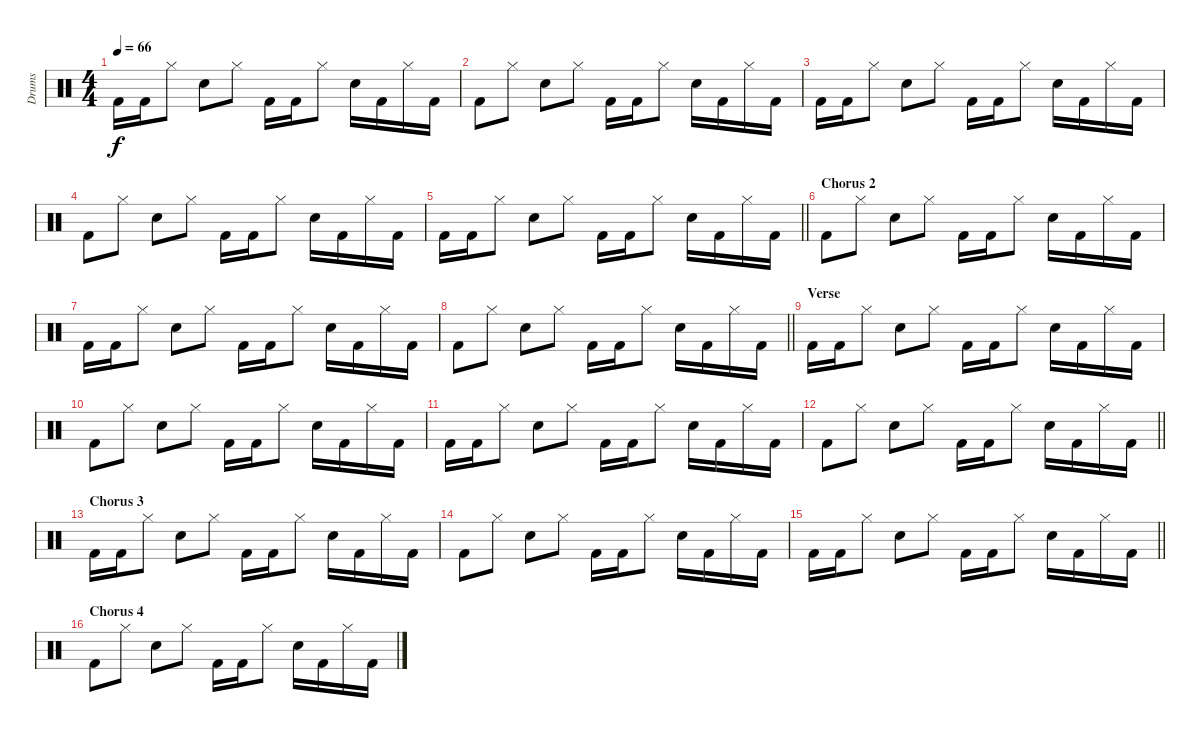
\track ("Drums" "Drums") {instrument percussion}
\staff {score}
\articulation defaults
\ts (4 4)
\tempo 66
\clef neutral
\ks c "Kick (hit) 2".16{dy f} "Kick (hit) 2".16 "Hi-Hat (closed)".8 "Snare (hit) 2".8 "Hi-Hat (closed)".8 "Kick (hit) 2".16 "Kick (hit) 2".16 "Hi-Hat (closed)".8 "Snare (hit) 2".16 "Kick (hit) 2".16 "Hi-Hat (closed)".16 "Kick (hit) 2".16
|
"Kick (hit) 2".8 "Hi-Hat (closed)".8 "Snare (hit) 2".8 "Hi-Hat (closed)".8 "Kick (hit) 2".16 "Kick (hit) 2".16 "Hi-Hat (closed)".8 "Snare (hit) 2".16 "Kick (hit) 2".16 "Hi-Hat (closed)".16 "Kick (hit) 2".16 |
"Kick (hit) 2".16 "Kick (hit) 2".16 "Hi-Hat (closed)".8 "Snare (hit) 2".8 "Hi-Hat (closed)".8 "Kick (hit) 2".16 "Kick (hit) 2".16 "Hi-Hat (closed)".8 "Snare (hit) 2".16 "Kick (hit) 2".16 "Hi-Hat (closed)".16 "Kick (hit) 2".16 |
"Kick (hit) 2".8 "Hi-Hat (closed)".8 "Snare (hit) 2".8 "Hi-Hat (closed)".8 "Kick (hit) 2".16 "Kick (hit) 2".16 "Hi-Hat (closed)".8 "Snare (hit) 2".16 "Kick (hit) 2".16 "Hi-Hat (closed)".16 "Kick (hit) 2".16 |
\barLineRight lightlight "Kick (hit) 2".16 "Kick (hit) 2".16 "Hi-Hat (closed)".8 "Snare (hit) 2".8 "Hi-Hat (closed)".8 "Kick (hit) 2".16 "Kick (hit) 2".16 "Hi-Hat (closed)".8 "Snare (hit) 2".16 "Kick (hit) 2".16 "Hi-Hat (closed)".16 "Kick (hit) 2".16
|
\section ("" "Chorus 2")
"Kick (hit) 2".8 "Hi-Hat (closed)".8 "Snare (hit) 2".8 "Hi-Hat (closed)".8 "Kick (hit) 2".16 "Kick (hit) 2".16 "Hi-Hat (closed)".8 "Snare (hit) 2".16 "Kick (hit) 2".16 "Hi-Hat (closed)".16 "Kick (hit) 2".16 |
"Kick (hit) 2".16 "Kick (hit) 2".16 "Hi-Hat (closed)".8 "Snare (hit) 2".8 "Hi-Hat (closed)".8 "Kick (hit) 2".16 "Kick (hit) 2".16 "Hi-Hat (closed)".8 "Snare (hit) 2".16 "Kick (hit) 2".16 "Hi-Hat (closed)".16 "Kick (hit) 2".16 |
\barLineRight lightlight "Kick (hit) 2".8 "Hi-Hat (closed)".8 "Snare (hit) 2".8 "Hi-Hat (closed)".8 "Kick (hit) 2".16 "Kick (hit) 2".16 "Hi-Hat (closed)".8 "Snare (hit) 2".16 "Kick (hit) 2".16 "Hi-Hat (closed)".16 "Kick (hit) 2".16
|
\section ("" "Verse")
"Kick (hit) 2".16 "Kick (hit) 2".16 "Hi-Hat (closed)".8 "Snare (hit) 2".8 "Hi-Hat (closed)".8 "Kick (hit) 2".16 "Kick (hit) 2".16 "Hi-Hat (closed)".8 "Snare (hit) 2".16 "Kick (hit) 2".16 "Hi-Hat (closed)".16 "Kick (hit) 2".16 |
"Kick (hit) 2".8 "Hi-Hat (closed)".8 "Snare (hit) 2".8 "Hi-Hat (closed)".8 "Kick (hit) 2".16 "Kick (hit) 2".16 "Hi-Hat (closed)".8 "Snare (hit) 2".16 "Kick (hit) 2".16 "Hi-Hat (closed)".16 "Kick (hit) 2".16 |
"Kick (hit) 2".16 "Kick (hit) 2".16 "Hi-Hat (closed)".8 "Snare (hit) 2".8 "Hi-Hat (closed)".8 "Kick (hit) 2".16 "Kick (hit) 2".16 "Hi-Hat (closed)".8 "Snare (hit) 2".16 "Kick (hit) 2".16 "Hi-Hat (closed)".16 "Kick (hit) 2".16 |
\barLineRight lightlight "Kick (hit) 2".8 "Hi-Hat (closed)".8 "Snare (hit) 2".8 "Hi-Hat (closed)".8 "Kick (hit) 2".16 "Kick (hit) 2".16 "Hi-Hat (closed)".8 "Snare (hit) 2".16 "Kick (hit) 2".16 "Hi-Hat (closed)".16 "Kick (hit) 2".16
|
\section ("" "Chorus 3")
"Kick (hit) 2".16 "Kick (hit) 2".16 "Hi-Hat (closed)".8 "Snare (hit) 2".8 "Hi-Hat (closed)".8 "Kick (hit) 2".16 "Kick (hit) 2".16 "Hi-Hat (closed)".8 "Snare (hit) 2".16 "Kick (hit) 2".16 "Hi-Hat (closed)".16 "Kick (hit) 2".16 |
"Kick (hit) 2".8 "Hi-Hat (closed)".8 "Snare (hit) 2".8 "Hi-Hat (closed)".8 "Kick (hit) 2".16 "Kick (hit) 2".16 "Hi-Hat (closed)".8 "Snare (hit) 2".16 "Kick (hit) 2".16 "Hi-Hat (closed)".16 "Kick (hit) 2".16 |
\barLineRight lightlight "Kick (hit) 2".16 "Kick (hit) 2".16 "Hi-Hat (closed)".8 "Snare (hit) 2".8 "Hi-Hat (closed)".8 "Kick (hit) 2".16 "Kick (hit) 2".16 "Hi-Hat (closed)".8 "Snare (hit) 2".16 "Kick (hit) 2".16 "Hi-Hat (closed)".16 "Kick (hit) 2".16
|
\section ("" "Chorus 4")
"Kick (hit) 2".8 "Hi-Hat (closed)".8 "Snare (hit) 2".8 "Hi-Hat (closed)".8 "Kick (hit) 2".16 "Kick (hit) 2".16 "Hi-Hat (closed)".8 "Snare (hit) 2".16 "Kick (hit) 2".16 "Hi-Hat (closed)".16 "Kick (hit) 2".16
